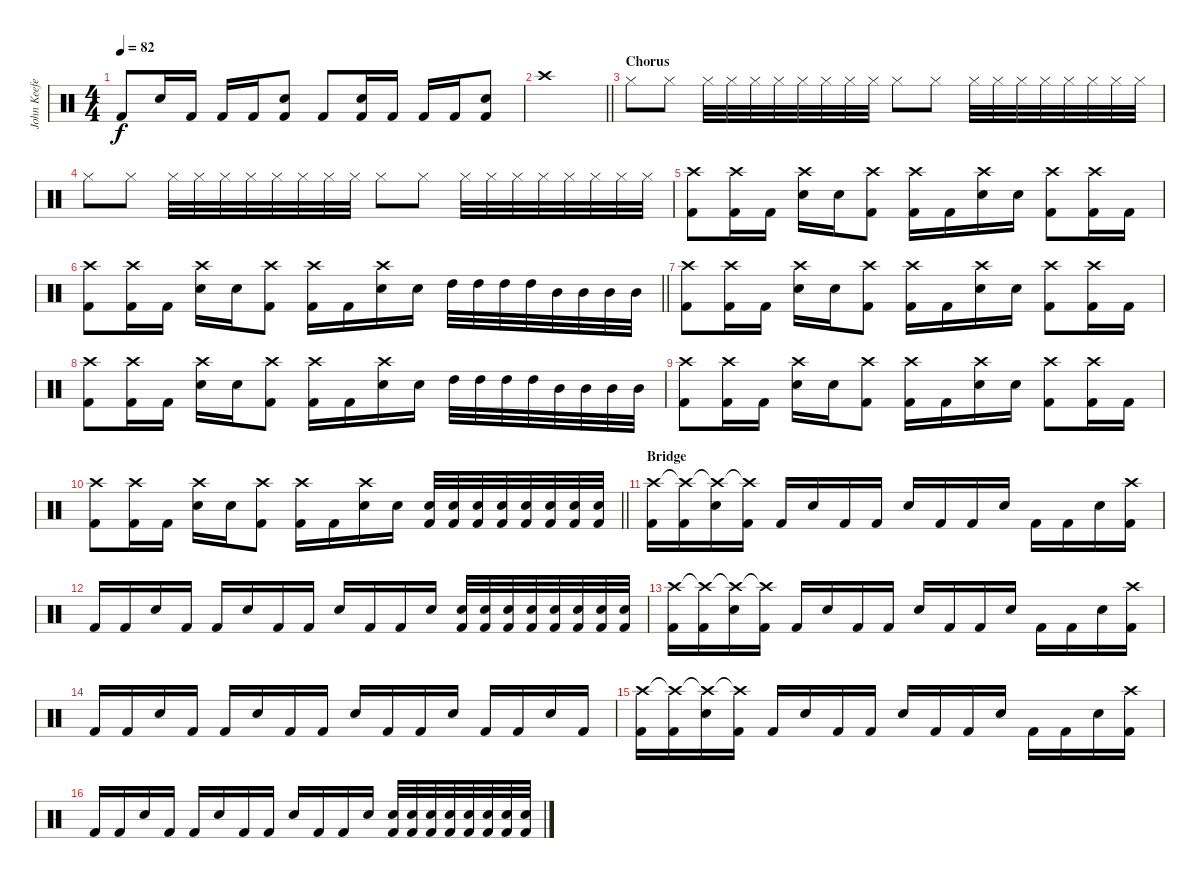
\track ("John Keefe (Percussion)" "John Keefe") {instrument percussion}
\staff {score}
\articulation defaults
\ts (4 4)
\tempo 82
\clef neutral
\ks c "Kick (hit) 2".8{dy f} "Snare (hit) 2".16 "Kick (hit) 2".16 "Kick (hit) 2".16 "Kick (hit) 2".16
("Snare (hit) 2" "Kick (hit) 2").8 "Kick (hit) 2".8 ("Snare (hit) 2" "Kick (hit) 2").16 "Kick (hit) 2".16 "Kick (hit) 2".16 "Kick (hit) 2".16 ("Snare (hit) 2" "Kick (hit) 2").8 |
\barLineRight lightlight "Crash high (hit)".1
|
\section ("" "Chorus")
"Hi-Hat (closed)".8 "Hi-Hat (closed)".8 "Hi-Hat (closed)".32 "Hi-Hat (closed)".32 "Hi-Hat (closed)".32 "Hi-Hat (closed)".32 "Hi-Hat (closed)".32 "Hi-Hat (closed)".32 "Hi-Hat (closed)".32 "Hi-Hat (closed)".32 "Hi-Hat (closed)".8 "Hi-Hat (closed)".8 "Hi-Hat (closed)".32 "Hi-Hat (closed)".32 "Hi-Hat (closed)".32 "Hi-Hat (closed)".32 "Hi-Hat (closed)".32 "Hi-Hat (closed)".32 "Hi-Hat (closed)".32 "Hi-Hat (closed)".32 |
"Hi-Hat (closed)".8 "Hi-Hat (closed)".8 "Hi-Hat (closed)".32 "Hi-Hat (closed)".32 "Hi-Hat (closed)".32 "Hi-Hat (closed)".32 "Hi-Hat (closed)".32 "Hi-Hat (closed)".32 "Hi-Hat (closed)".32 "Hi-Hat (closed)".32 "Hi-Hat (closed)".8 "Hi-Hat (closed)".8 "Hi-Hat (closed)".32 "Hi-Hat (closed)".32 "Hi-Hat (closed)".32 "Hi-Hat (closed)".32 "Hi-Hat (closed)".32 "Hi-Hat (closed)".32 "Hi-Hat (closed)".32 "Hi-Hat (closed)".32 |
("Crash high (hit)" "Kick (hit) 2").8 ("Crash high (hit)" "Kick (hit) 2").16 "Kick (hit) 2".16 ("Crash high (hit)" "Snare (hit) 2").16 "Snare (hit) 2".16 ("Crash high (hit)" "Kick (hit) 2").8 ("Crash high (hit)" "Kick (hit) 2").16 "Kick (hit) 2".16 ("Crash high (hit)" "Snare (hit) 2").16 "Snare (hit) 2".16 ("Crash high (hit)" "Kick (hit) 2").8 ("Crash high (hit)" "Kick (hit) 2").16 "Kick (hit) 2".16 |
\barLineRight lightlight
("Crash high (hit)" "Kick (hit) 2").8 ("Crash high (hit)" "Kick (hit) 2").16 "Kick (hit) 2".16 ("Crash high (hit)" "Snare (hit) 2").16 "Snare (hit) 2".16 ("Crash high (hit)" "Kick (hit) 2").8 ("Crash high (hit)" "Kick (hit) 2").16 "Kick (hit) 2".16 ("Crash high (hit)" "Snare (hit) 2").16 "Snare (hit) 2".16 "High Tom (hit)".32 "High Tom (hit)".32 "High Tom (hit)".32 "High Tom (hit)".32 "Mid Tom (hit)".32 "Mid Tom (hit)".32 "Mid Tom (hit)".32 "Mid Tom (hit)".32 |
("Crash high (hit)" "Kick (hit) 2").8 ("Crash high (hit)" "Kick (hit) 2").16 "Kick (hit) 2".16 ("Crash high (hit)" "Snare (hit) 2").16 "Snare (hit) 2".16 ("Crash high (hit)" "Kick (hit) 2").8 ("Crash high (hit)" "Kick (hit) 2").16 "Kick (hit) 2".16 ("Crash high (hit)" "Snare (hit) 2").16 "Snare (hit) 2".16 ("Crash high (hit)" "Kick (hit) 2").8 ("Crash high (hit)" "Kick (hit) 2").16 "Kick (hit) 2".16 |
("Crash high (hit)" "Kick (hit) 2").8 ("Crash high (hit)" "Kick (hit) 2").16 "Kick (hit) 2".16 ("Crash high (hit)" "Snare (hit) 2").16 "Snare (hit) 2".16 ("Crash high (hit)" "Kick (hit) 2").8 ("Crash high (hit)" "Kick (hit) 2").16 "Kick (hit) 2".16 ("Crash high (hit)" "Snare (hit) 2").16 "Snare (hit) 2".16 "High Tom (hit)".32 "High Tom (hit)".32 "High Tom (hit)".32 "High Tom (hit)".32 "Mid Tom (hit)".32 "Mid Tom (hit)".32 "Mid Tom (hit)".32 "Mid Tom (hit)".32 |
("Crash high (hit)" "Kick (hit) 2").8 ("Crash high (hit)" "Kick (hit) 2").16 "Kick (hit) 2".16 ("Crash high (hit)" "Snare (hit) 2").16 "Snare (hit) 2".16 ("Crash high (hit)" "Kick (hit) 2").8 ("Crash high (hit)" "Kick (hit) 2").16 "Kick (hit) 2".16 ("Crash high (hit)" "Snare (hit) 2").16 "Snare (hit) 2".16 ("Crash high (hit)" "Kick (hit) 2").8 ("Crash high (hit)" "Kick (hit) 2").16 "Kick (hit) 2".16 |
\barLineRight lightlight
("Crash high (hit)" "Kick (hit) 2").8 ("Crash high (hit)" "Kick (hit) 2").16 "Kick (hit) 2".16 ("Crash high (hit)" "Snare (hit) 2").16 "Snare (hit) 2".16 ("Crash high (hit)" "Kick (hit) 2").8 ("Crash high (hit)" "Kick (hit) 2").16 "Kick (hit) 2".16 ("Crash high (hit)" "Snare (hit) 2").16 "Snare (hit) 2".16 ("Snare (hit) 2" "Kick (hit) 2").32 ("Snare (hit) 2" "Kick (hit) 2").32 ("Snare (hit) 2" "Kick (hit) 2").32 ("Snare (hit) 2" "Kick (hit) 2").32 ("Snare (hit) 2" "Kick (hit) 2").32 ("Snare (hit) 2" "Kick (hit) 2").32 ("Snare (hit) 2" "Kick (hit) 2").32 ("Snare (hit) 2" "Kick (hit) 2").32 |
\section ("" "Bridge")
("Crash high (hit)" "Kick (hit) 2").16 ("Crash high (hit)"{t} "Kick (hit) 2").16 ("Crash high (hit)"{t} "Snare (hit) 2").16 ("Crash high (hit)"{t} "Kick (hit) 2").16 "Kick (hit) 2".16 "Snare (hit) 2".16 "Kick (hit) 2".16 "Kick (hit) 2".16 "Snare (hit) 2".16 "Kick (hit) 2".16 "Kick (hit) 2".16 "Snare (hit) 2".16 "Kick (hit) 2".16 "Kick (hit) 2".16 "Snare (hit) 2".16 ("Crash high (hit)" "Kick (hit) 2").16 |
"Kick (hit) 2".16 "Kick (hit) 2".16 "Snare (hit) 2".16 "Kick (hit) 2".16 "Kick (hit) 2".16 "Snare (hit) 2".16 "Kick (hit) 2".16 "Kick (hit) 2".16 "Snare (hit) 2".16 "Kick (hit) 2".16 "Kick (hit) 2".16 "Snare (hit) 2".16 ("Kick (hit) 2" "Snare (hit) 2").32 ("Kick (hit) 2" "Snare (hit) 2").32 ("Kick (hit) 2" "Snare (hit) 2").32 ("Kick (hit) 2" "Snare (hit) 2").32 ("Kick (hit) 2" "Snare (hit) 2").32 ("Kick (hit) 2" "Snare (hit) 2").32 ("Kick (hit) 2" "Snare (hit) 2").32 ("Kick (hit) 2" "Snare (hit) 2").32 |
("Crash high (hit)" "Kick (hit) 2").16 ("Crash high (hit)"{t} "Kick (hit) 2").16 ("Crash high (hit)"{t} "Snare (hit) 2").16 ("Crash high (hit)"{t} "Kick (hit) 2").16 "Kick (hit) 2".16 "Snare (hit) 2".16 "Kick (hit) 2".16 "Kick (hit) 2".16 "Snare (hit) 2".16 "Kick (hit) 2".16 "Kick (hit) 2".16 "Snare (hit) 2".16 "Kick (hit) 2".16 "Kick (hit) 2".16 "Snare (hit) 2".16 ("Crash high (hit)" "Kick (hit) 2").16 |
"Kick (hit) 2".16 "Kick (hit) 2".16 "Snare (hit) 2".16 "Kick (hit) 2".16 "Kick (hit) 2".16 "Snare (hit) 2".16 "Kick (hit) 2".16 "Kick (hit) 2".16 "Snare (hit) 2".16 "Kick (hit) 2".16 "Kick (hit) 2".16 "Snare (hit) 2".16 "Kick (hit) 2".16 "Kick (hit) 2".16 "Snare (hit) 2".16 "Kick (hit) 2".16 |
("Crash high (hit)" "Kick (hit) 2").16 ("Crash high (hit)"{t} "Kick (hit) 2").16 ("Crash high (hit)"{t} "Snare (hit) 2").16 ("Crash high (hit)"{t} "Kick (hit) 2").16 "Kick (hit) 2".16 "Snare (hit) 2".16 "Kick (hit) 2".16 "Kick (hit) 2".16 "Snare (hit) 2".16 "Kick (hit) 2".16 "Kick (hit) 2".16 "Snare (hit) 2".16 "Kick (hit) 2".16 "Kick (hit) 2".16 "Snare (hit) 2".16 ("Crash high (hit)" "Kick (hit) 2").16 |
"Kick (hit) 2".16 "Kick (hit) 2".16 "Snare (hit) 2".16 "Kick (hit) 2".16 "Kick (hit) 2".16 "Snare (hit) 2".16 "Kick (hit) 2".16 "Kick (hit) 2".16 "Snare (hit) 2".16 "Kick (hit) 2".16 "Kick (hit) 2".16 "Snare (hit) 2".16 ("Kick (hit) 2" "Snare (hit) 2").32 ("Kick (hit) 2" "Snare (hit) 2").32 ("Kick (hit) 2" "Snare (hit) 2").32 ("Kick (hit) 2" "Snare (hit) 2").32 ("Kick (hit) 2" "Snare (hit) 2").32 ("Kick (hit) 2" "Snare (hit) 2").32 ("Kick (hit) 2" "Snare (hit) 2").32 ("Kick (hit) 2" "Snare (hit) 2").32
